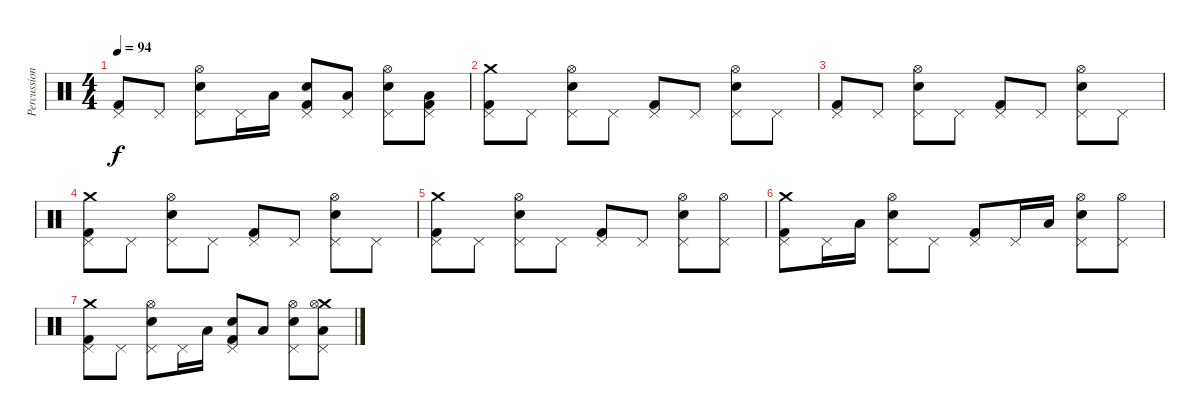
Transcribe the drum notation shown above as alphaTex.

\track ("Percussions" "Percussion") {instrument percussion}
\staff {score}
\articulation defaults
\ts (4 4)
\tempo 94
\clef neutral
\ks c
("Pedal Hi-Hat (hit)" "Kick (hit) 2").8{dy f} "Pedal Hi-Hat (hit)".8 ("Pedal Hi-Hat (hit)" "Electric Snare (hit)" "Hi-Hat (open)").8 "Pedal Hi-Hat (hit)".16 "Low Floor Tom (hit)".16 ("Pedal Hi-Hat (hit)" "Electric Snare (hit)" "Kick (hit) 2").8 ("Pedal Hi-Hat (hit)" "Low Floor Tom (hit)").8 ("Pedal Hi-Hat (hit)" "Electric Snare (hit)" "Hi-Hat (open)").8 ("Pedal Hi-Hat (hit)" "Low Floor Tom (hit)" "Kick (hit) 2").8 |
("Pedal Hi-Hat (hit)" "Crash medium (hit)" "Kick (hit) 2").8 "Pedal Hi-Hat (hit)".8 ("Pedal Hi-Hat (hit)" "Electric Snare (hit)" "Hi-Hat (open)").8 "Pedal Hi-Hat (hit)".8 ("Pedal Hi-Hat (hit)" "Kick (hit) 2").8 "Pedal Hi-Hat (hit)".8 ("Pedal Hi-Hat (hit)" "Electric Snare (hit)" "Hi-Hat (open)").8 "Pedal Hi-Hat (hit)".8 |
("Pedal Hi-Hat (hit)" "Kick (hit) 2").8 "Pedal Hi-Hat (hit)".8 ("Pedal Hi-Hat (hit)" "Electric Snare (hit)" "Hi-Hat (open)").8 "Pedal Hi-Hat (hit)".8 ("Pedal Hi-Hat (hit)" "Kick (hit) 2").8 "Pedal Hi-Hat (hit)".8 ("Pedal Hi-Hat (hit)" "Electric Snare (hit)" "Hi-Hat (open)").8 "Pedal Hi-Hat (hit)".8 |
("Pedal Hi-Hat (hit)" "Crash medium (hit)" "Kick (hit) 2").8 "Pedal Hi-Hat (hit)".8 ("Pedal Hi-Hat (hit)" "Electric Snare (hit)" "Hi-Hat (open)").8 "Pedal Hi-Hat (hit)".8 ("Pedal Hi-Hat (hit)" "Kick (hit) 2").8 "Pedal Hi-Hat (hit)".8 ("Pedal Hi-Hat (hit)" "Electric Snare (hit)" "Hi-Hat (open)").8 "Pedal Hi-Hat (hit)".8 |
("Pedal Hi-Hat (hit)" "Crash medium (hit)" "Kick (hit) 2").8 "Pedal Hi-Hat (hit)".8 ("Pedal Hi-Hat (hit)" "Electric Snare (hit)" "Hi-Hat (open)").8 "Pedal Hi-Hat (hit)".8 ("Pedal Hi-Hat (hit)" "Kick (hit) 2").8 "Pedal Hi-Hat (hit)".8 ("Pedal Hi-Hat (hit)" "Electric Snare (hit)" "Hi-Hat (open)").8 ("Pedal Hi-Hat (hit)" "Hi-Hat (open)").8 |
("Pedal Hi-Hat (hit)" "Crash medium (hit)" "Kick (hit) 2").8 "Pedal Hi-Hat (hit)".16 "Low Floor Tom (hit)".16 ("Pedal Hi-Hat (hit)" "Electric Snare (hit)" "Hi-Hat (open)").8 "Pedal Hi-Hat (hit)".8 ("Pedal Hi-Hat (hit)" "Kick (hit) 2").8 "Pedal Hi-Hat (hit)".16 "Low Floor Tom (hit)".16 ("Pedal Hi-Hat (hit)" "Electric Snare (hit)" "Hi-Hat (open)").8 ("Pedal Hi-Hat (hit)" "Hi-Hat (open)").8 |
("Pedal Hi-Hat (hit)" "Crash medium (hit)" "Kick (hit) 2").8 "Pedal Hi-Hat (hit)".8 ("Pedal Hi-Hat (hit)" "Electric Snare (hit)" "Hi-Hat (open)").8 "Pedal Hi-Hat (hit)".16 "Low Floor Tom (hit)".16 ("Pedal Hi-Hat (hit)" "Electric Snare (hit)" "Kick (hit) 2").8 "Low Floor Tom (hit)".8 ("Pedal Hi-Hat (hit)" "Electric Snare (hit)" "Hi-Hat (open)").8 ("Pedal Hi-Hat (hit)" "Low Floor Tom (hit)" "Crash medium (hit)" "Hi-Hat (open)").8
